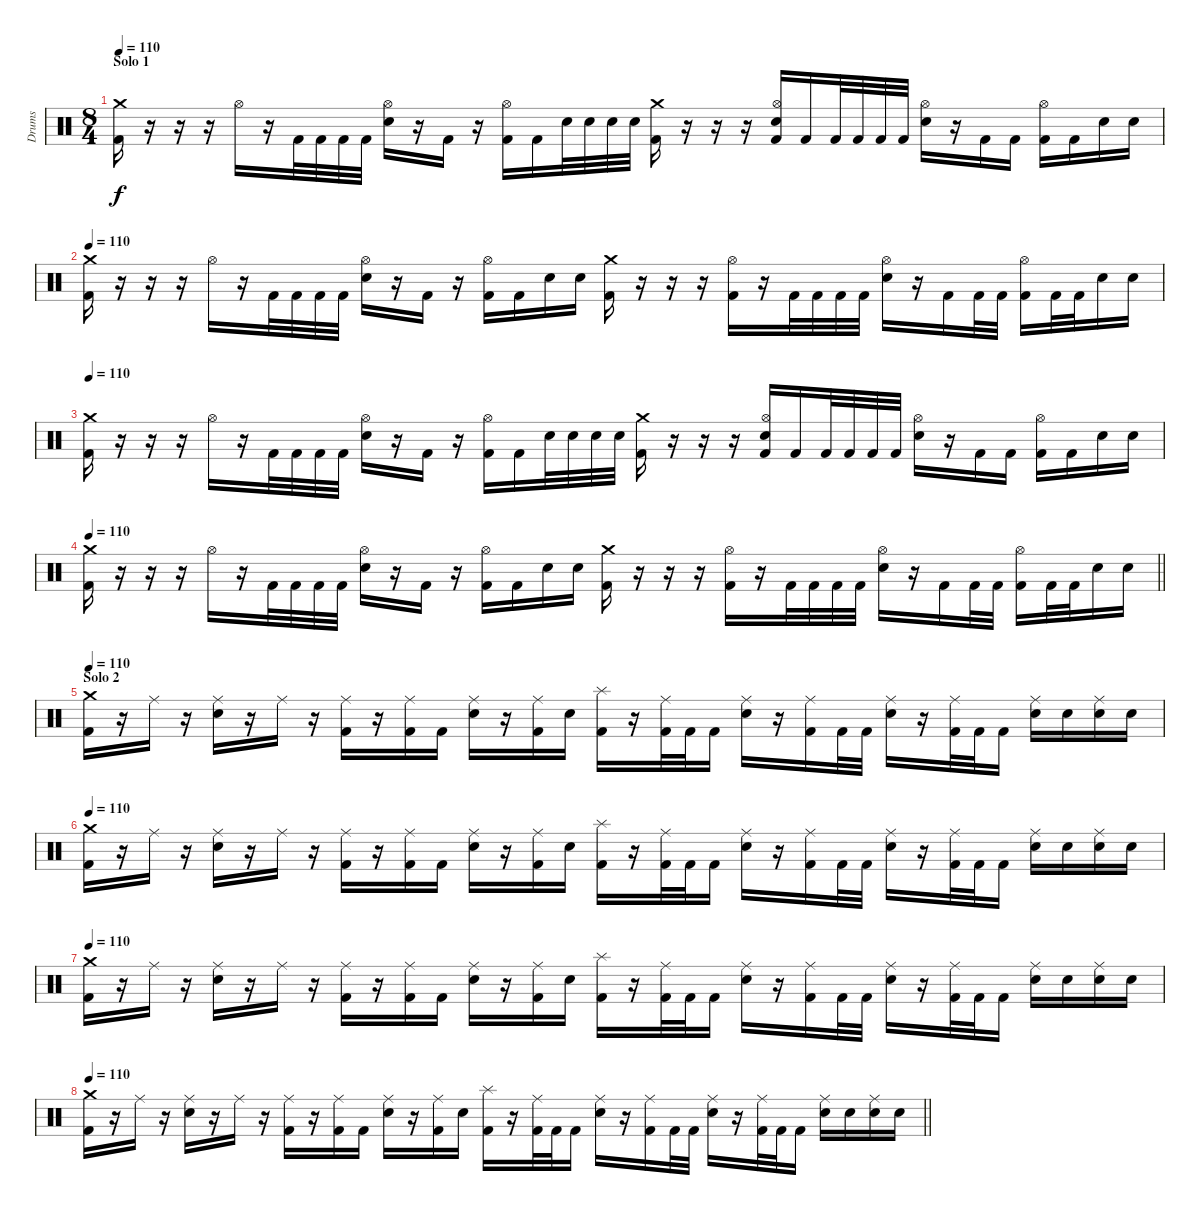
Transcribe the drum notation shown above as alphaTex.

\track ("Drums" "Drums") {instrument percussion}
\staff
\articulation defaults
\ts (8 4)
\section ("" "Solo 1")
\tempo 110
\clef neutral
\ks c
("Crash medium (hit)" "Kick (hit) 2").16{dy f} r.16 r.16 r.16 "Hi-Hat (open)".16 r.16 "Kick (hit) 2".32 "Kick (hit) 2".32 "Kick (hit) 2".32 "Kick (hit) 2".32 ("Hi-Hat (open)" "Electric Snare (hit)").16 r.16 "Kick (hit) 2".16 r.16 ("Hi-Hat (open)" "Kick (hit) 2").16 "Kick (hit) 2".16 "Electric Snare (hit)".32 "Electric Snare (hit)".32 "Electric Snare (hit)".32 "Electric Snare (hit)".32 ("Crash medium (hit)" "Kick (hit) 2").16 r.16 r.16 r.16 ("Hi-Hat (open)" "Electric Snare (hit)" "Kick (hit) 2").16 "Kick (hit) 2".16 "Kick (hit) 2".32 "Kick (hit) 2".32 "Kick (hit) 2".32 "Kick (hit) 2".32 ("Hi-Hat (open)" "Electric Snare (hit)").16 r.16 "Kick (hit) 2".16 "Kick (hit) 2".16 ("Hi-Hat (open)" "Kick (hit) 2").16 "Kick (hit) 2".16 "Electric Snare (hit)".16 "Electric Snare (hit)".16 |
\tempo 110
("Crash medium (hit)" "Kick (hit) 2").16 r.16 r.16 r.16 "Hi-Hat (open)".16 r.16 "Kick (hit) 2".32 "Kick (hit) 2".32 "Kick (hit) 2".32 "Kick (hit) 2".32 ("Hi-Hat (open)" "Electric Snare (hit)").16 r.16 "Kick (hit) 2".16 r.16 ("Hi-Hat (open)" "Kick (hit) 2").16 "Kick (hit) 2".16 "Electric Snare (hit)".16 "Electric Snare (hit)".16 ("Crash medium (hit)" "Kick (hit) 2").16 r.16 r.16 r.16 ("Hi-Hat (open)" "Kick (hit) 2").16 r.16 "Kick (hit) 2".32 "Kick (hit) 2".32 "Kick (hit) 2".32 "Kick (hit) 2".32 ("Hi-Hat (open)" "Electric Snare (hit)").16 r.16 "Kick (hit) 2".16 "Kick (hit) 2".32 "Kick (hit) 2".32 ("Hi-Hat (open)" "Kick (hit) 2").16 "Kick (hit) 2".32 "Kick (hit) 2".32 "Electric Snare (hit)".16 "Electric Snare (hit)".16 |
\tempo 110
("Crash medium (hit)" "Kick (hit) 2").16 r.16 r.16 r.16 "Hi-Hat (open)".16 r.16 "Kick (hit) 2".32 "Kick (hit) 2".32 "Kick (hit) 2".32 "Kick (hit) 2".32 ("Hi-Hat (open)" "Electric Snare (hit)").16 r.16 "Kick (hit) 2".16 r.16 ("Hi-Hat (open)" "Kick (hit) 2").16 "Kick (hit) 2".16 "Electric Snare (hit)".32 "Electric Snare (hit)".32 "Electric Snare (hit)".32 "Electric Snare (hit)".32 ("Crash medium (hit)" "Kick (hit) 2").16 r.16 r.16 r.16 ("Hi-Hat (open)" "Electric Snare (hit)" "Kick (hit) 2").16 "Kick (hit) 2".16 "Kick (hit) 2".32 "Kick (hit) 2".32 "Kick (hit) 2".32 "Kick (hit) 2".32 ("Hi-Hat (open)" "Electric Snare (hit)").16 r.16 "Kick (hit) 2".16 "Kick (hit) 2".16 ("Hi-Hat (open)" "Kick (hit) 2").16 "Kick (hit) 2".16 "Electric Snare (hit)".16 "Electric Snare (hit)".16 |
\tempo 110
\barLineRight lightlight
("Crash medium (hit)" "Kick (hit) 2").16 r.16 r.16 r.16 "Hi-Hat (open)".16 r.16 "Kick (hit) 2".32 "Kick (hit) 2".32 "Kick (hit) 2".32 "Kick (hit) 2".32 ("Hi-Hat (open)" "Electric Snare (hit)").16 r.16 "Kick (hit) 2".16 r.16 ("Hi-Hat (open)" "Kick (hit) 2").16 "Kick (hit) 2".16 "Electric Snare (hit)".16 "Electric Snare (hit)".16 ("Crash medium (hit)" "Kick (hit) 2").16 r.16 r.16 r.16 ("Hi-Hat (open)" "Kick (hit) 2").16 r.16 "Kick (hit) 2".32 "Kick (hit) 2".32 "Kick (hit) 2".32 "Kick (hit) 2".32 ("Hi-Hat (open)" "Electric Snare (hit)").16 r.16 "Kick (hit) 2".16 "Kick (hit) 2".32 "Kick (hit) 2".32 ("Hi-Hat (open)" "Kick (hit) 2").16 "Kick (hit) 2".32 "Kick (hit) 2".32 "Electric Snare (hit)".16 "Electric Snare (hit)".16 |
\section ("" "Solo 2")
\tempo 110
("Crash medium (hit)" "Kick (hit) 2").16 r.16 "Ride (middle)".16 r.16 ("Ride (middle)" "Electric Snare (hit)").16 r.16 "Ride (middle)".16 r.16 ("Ride (middle)" "Kick (hit) 2").16 r.16 ("Ride (middle)" "Kick (hit) 2").16 "Kick (hit) 2".16 ("Ride (middle)" "Electric Snare (hit)").16 r.16 ("Ride (middle)" "Kick (hit) 2").16 "Electric Snare (hit)".16 ("Splash (hit)" "Kick (hit) 2").16 r.16 ("Ride (middle)" "Kick (hit) 2").32 "Kick (hit) 2".32 "Kick (hit) 2".16 ("Ride (middle)" "Electric Snare (hit)").16 r.16 ("Ride (middle)" "Kick (hit) 2").16 "Kick (hit) 2".32 "Kick (hit) 2".32 ("Ride (middle)" "Electric Snare (hit)").16 r.16 ("Ride (middle)" "Kick (hit) 2").32 "Kick (hit) 2".32 "Kick (hit) 2".16 ("Ride (middle)" "Electric Snare (hit)").16 "Electric Snare (hit)".16 ("Ride (middle)" "Electric Snare (hit)").16 "Electric Snare (hit)".16 |
\tempo 110
("Crash medium (hit)" "Kick (hit) 2").16 r.16 "Ride (middle)".16 r.16 ("Ride (middle)" "Electric Snare (hit)").16 r.16 "Ride (middle)".16 r.16 ("Ride (middle)" "Kick (hit) 2").16 r.16 ("Ride (middle)" "Kick (hit) 2").16 "Kick (hit) 2".16 ("Ride (middle)" "Electric Snare (hit)").16 r.16 ("Ride (middle)" "Kick (hit) 2").16 "Electric Snare (hit)".16 ("Splash (hit)" "Kick (hit) 2").16 r.16 ("Ride (middle)" "Kick (hit) 2").32 "Kick (hit) 2".32 "Kick (hit) 2".16 ("Ride (middle)" "Electric Snare (hit)").16 r.16 ("Ride (middle)" "Kick (hit) 2").16 "Kick (hit) 2".32 "Kick (hit) 2".32 ("Ride (middle)" "Electric Snare (hit)").16 r.16 ("Ride (middle)" "Kick (hit) 2").32 "Kick (hit) 2".32 "Kick (hit) 2".16 ("Ride (middle)" "Electric Snare (hit)").16 "Electric Snare (hit)".16 ("Ride (middle)" "Electric Snare (hit)").16 "Electric Snare (hit)".16 |
\tempo 110
("Crash medium (hit)" "Kick (hit) 2").16 r.16 "Ride (middle)".16 r.16 ("Ride (middle)" "Electric Snare (hit)").16 r.16 "Ride (middle)".16 r.16 ("Ride (middle)" "Kick (hit) 2").16 r.16 ("Ride (middle)" "Kick (hit) 2").16 "Kick (hit) 2".16 ("Ride (middle)" "Electric Snare (hit)").16 r.16 ("Ride (middle)" "Kick (hit) 2").16 "Electric Snare (hit)".16 ("Splash (hit)" "Kick (hit) 2").16 r.16 ("Ride (middle)" "Kick (hit) 2").32 "Kick (hit) 2".32 "Kick (hit) 2".16 ("Ride (middle)" "Electric Snare (hit)").16 r.16 ("Ride (middle)" "Kick (hit) 2").16 "Kick (hit) 2".32 "Kick (hit) 2".32 ("Ride (middle)" "Electric Snare (hit)").16 r.16 ("Ride (middle)" "Kick (hit) 2").32 "Kick (hit) 2".32 "Kick (hit) 2".16 ("Ride (middle)" "Electric Snare (hit)").16 "Electric Snare (hit)".16 ("Ride (middle)" "Electric Snare (hit)").16 "Electric Snare (hit)".16 |
\tempo 110
\barLineRight lightlight
("Crash medium (hit)" "Kick (hit) 2").16 r.16 "Ride (middle)".16 r.16 ("Ride (middle)" "Electric Snare (hit)").16 r.16 "Ride (middle)".16 r.16 ("Ride (middle)" "Kick (hit) 2").16 r.16 ("Ride (middle)" "Kick (hit) 2").16 "Kick (hit) 2".16 ("Ride (middle)" "Electric Snare (hit)").16 r.16 ("Ride (middle)" "Kick (hit) 2").16 "Electric Snare (hit)".16 ("Splash (hit)" "Kick (hit) 2").16 r.16 ("Ride (middle)" "Kick (hit) 2").32 "Kick (hit) 2".32 "Kick (hit) 2".16 ("Ride (middle)" "Electric Snare (hit)").16 r.16 ("Ride (middle)" "Kick (hit) 2").16 "Kick (hit) 2".32 "Kick (hit) 2".32 ("Ride (middle)" "Electric Snare (hit)").16 r.16 ("Ride (middle)" "Kick (hit) 2").32 "Kick (hit) 2".32 "Kick (hit) 2".16 ("Ride (middle)" "Electric Snare (hit)").16 "Electric Snare (hit)".16 ("Ride (middle)" "Electric Snare (hit)").16 "Electric Snare (hit)".16
